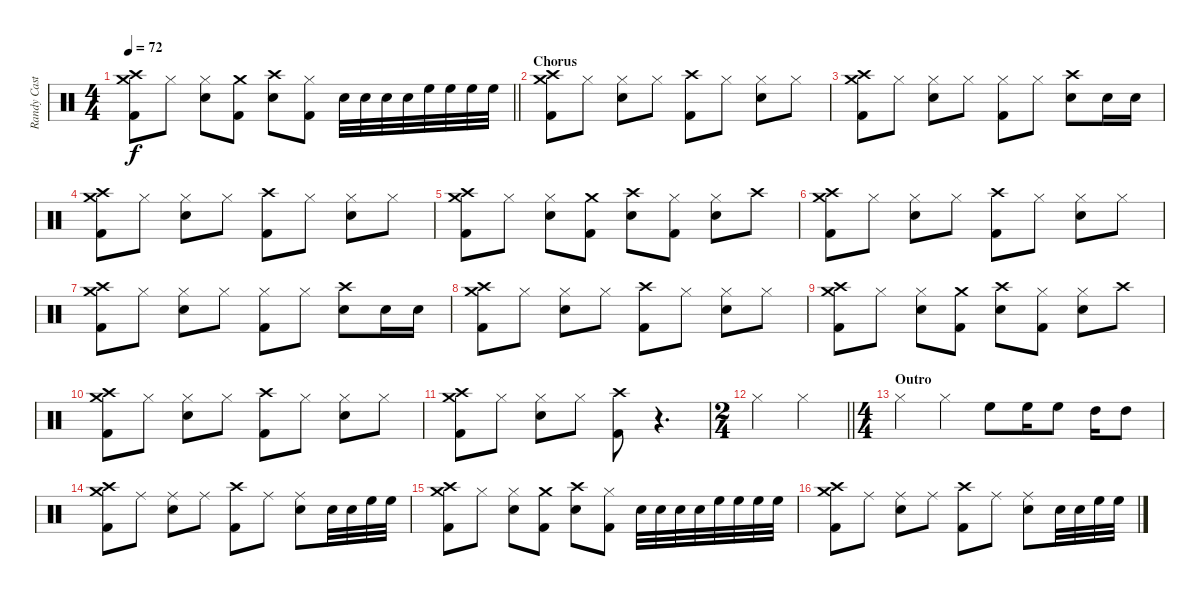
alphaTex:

\track ("Randy Castillo" "Randy Cast") {instrument percussion}
\staff {score}
\articulation defaults
\ts (4 4)
\tempo 72
\clef neutral
\barLineRight lightlight
\ks c
("Crash medium (hit)" "Crash high (hit)" "Kick (hit) 2").8{dy f} "Hi-Hat (closed)".8 ("Hi-Hat (closed)" "Snare (hit) 2").8 ("Crash medium (hit)" "Kick (hit) 2").8 ("Crash high (hit)" "Snare (hit) 2").8 ("Hi-Hat (closed)" "Kick (hit) 2").8 "Snare (hit) 2".32 "Snare (hit) 2".32 "Snare (hit) 2".32 "Snare (hit) 2".32 "High Floor Tom (hit)".32 "High Floor Tom (hit)".32 "High Floor Tom (hit)".32 "High Floor Tom (hit)".32 |
\section ("" "Chorus")
("Crash medium (hit)" "Crash high (hit)" "Kick (hit) 2").8 "Hi-Hat (closed)".8 ("Hi-Hat (closed)" "Snare (hit) 2").8 "Hi-Hat (closed)".8 ("Crash high (hit)" "Kick (hit) 2").8 "Hi-Hat (closed)".8 ("Hi-Hat (closed)" "Snare (hit) 2").8 "Hi-Hat (closed)".8 |
("Crash medium (hit)" "Crash high (hit)" "Kick (hit) 2").8 "Hi-Hat (closed)".8 ("Hi-Hat (closed)" "Snare (hit) 2").8 "Hi-Hat (closed)".8 ("Hi-Hat (closed)" "Kick (hit) 2").8 "Hi-Hat (closed)".8 ("Crash high (hit)" "Snare (hit) 2").8 "Snare (hit) 2".16 "Snare (hit) 2".16 |
("Crash medium (hit)" "Crash high (hit)" "Kick (hit) 2").8 "Hi-Hat (closed)".8 ("Hi-Hat (closed)" "Snare (hit) 2").8 "Hi-Hat (closed)".8 ("Crash high (hit)" "Kick (hit) 2").8 "Hi-Hat (closed)".8 ("Hi-Hat (closed)" "Snare (hit) 2").8 "Hi-Hat (closed)".8 |
("Crash medium (hit)" "Crash high (hit)" "Kick (hit) 2").8 "Hi-Hat (closed)".8 ("Hi-Hat (closed)" "Snare (hit) 2").8 ("Crash medium (hit)" "Kick (hit) 2").8 ("Crash high (hit)" "Snare (hit) 2").8 ("Hi-Hat (closed)" "Kick (hit) 2").8 ("Hi-Hat (closed)" "Snare (hit) 2").8 "Crash high (hit)".8 |
("Crash medium (hit)" "Crash high (hit)" "Kick (hit) 2").8 "Hi-Hat (closed)".8 ("Hi-Hat (closed)" "Snare (hit) 2").8 "Hi-Hat (closed)".8 ("Crash high (hit)" "Kick (hit) 2").8 "Hi-Hat (closed)".8 ("Hi-Hat (closed)" "Snare (hit) 2").8 "Hi-Hat (closed)".8 |
("Crash medium (hit)" "Crash high (hit)" "Kick (hit) 2").8 "Hi-Hat (closed)".8 ("Hi-Hat (closed)" "Snare (hit) 2").8 "Hi-Hat (closed)".8 ("Hi-Hat (closed)" "Kick (hit) 2").8 "Hi-Hat (closed)".8 ("Crash high (hit)" "Snare (hit) 2").8 "Snare (hit) 2".16 "Snare (hit) 2".16 |
("Crash medium (hit)" "Crash high (hit)" "Kick (hit) 2").8 "Hi-Hat (closed)".8 ("Hi-Hat (closed)" "Snare (hit) 2").8 "Hi-Hat (closed)".8 ("Crash high (hit)" "Kick (hit) 2").8 "Hi-Hat (closed)".8 ("Hi-Hat (closed)" "Snare (hit) 2").8 "Hi-Hat (closed)".8 |
("Crash medium (hit)" "Crash high (hit)" "Kick (hit) 2").8 "Hi-Hat (closed)".8 ("Hi-Hat (closed)" "Snare (hit) 2").8 ("Crash medium (hit)" "Kick (hit) 2").8 ("Crash high (hit)" "Snare (hit) 2").8 ("Hi-Hat (closed)" "Kick (hit) 2").8 ("Hi-Hat (closed)" "Snare (hit) 2").8 "Crash high (hit)".8 |
("Crash medium (hit)" "Crash high (hit)" "Kick (hit) 2").8 "Hi-Hat (closed)".8 ("Hi-Hat (closed)" "Snare (hit) 2").8 "Hi-Hat (closed)".8 ("Crash high (hit)" "Kick (hit) 2").8 "Hi-Hat (closed)".8 ("Hi-Hat (closed)" "Snare (hit) 2").8 "Hi-Hat (closed)".8 |
("Crash medium (hit)" "Crash high (hit)" "Kick (hit) 2").8 "Hi-Hat (closed)".8 ("Hi-Hat (closed)" "Snare (hit) 2").8 "Hi-Hat (closed)".8 ("Crash high (hit)" "Kick (hit) 2").8 r.4{d} |
\ts (2 4)
\barLineRight lightlight "Hi-Hat (closed)".4 "Hi-Hat (closed)".4
|
\ts (4 4)
\section ("" "Outro")
"Hi-Hat (closed)".4 "Hi-Hat (closed)".4 "High Floor Tom (hit)".8 "High Floor Tom (hit)".16 "High Floor Tom (hit)".8 "High Tom (hit)".16 "High Tom (hit)".8 |
("Crash medium (hit)" "Crash high (hit)" "Kick (hit) 2").8 "Ride (middle)".8 ("Ride (middle)" "Snare (hit) 2").8 "Ride (middle)".8 ("Crash high (hit)" "Kick (hit) 2").8 "Ride (middle)".8 ("Ride (middle)" "Snare (hit) 2").8 "Snare (hit) 2".32 "Snare (hit) 2".32 "High Floor Tom (hit)".32 "High Floor Tom (hit)".32 |
("Crash medium (hit)" "Crash high (hit)" "Kick (hit) 2").8 "Hi-Hat (closed)".8 ("Hi-Hat (closed)" "Snare (hit) 2").8 ("Crash medium (hit)" "Kick (hit) 2").8 ("Crash high (hit)" "Snare (hit) 2").8 ("Hi-Hat (closed)" "Kick (hit) 2").8 "Snare (hit) 2".32 "Snare (hit) 2".32 "Snare (hit) 2".32 "Snare (hit) 2".32 "High Floor Tom (hit)".32 "High Floor Tom (hit)".32 "High Floor Tom (hit)".32 "High Floor Tom (hit)".32 |
("Crash medium (hit)" "Crash high (hit)" "Kick (hit) 2").8 "Ride (middle)".8 ("Ride (middle)" "Snare (hit) 2").8 "Ride (middle)".8 ("Crash high (hit)" "Kick (hit) 2").8 "Ride (middle)".8 ("Ride (middle)" "Snare (hit) 2").8 "Snare (hit) 2".32 "Snare (hit) 2".32 "High Floor Tom (hit)".32 "High Floor Tom (hit)".32
